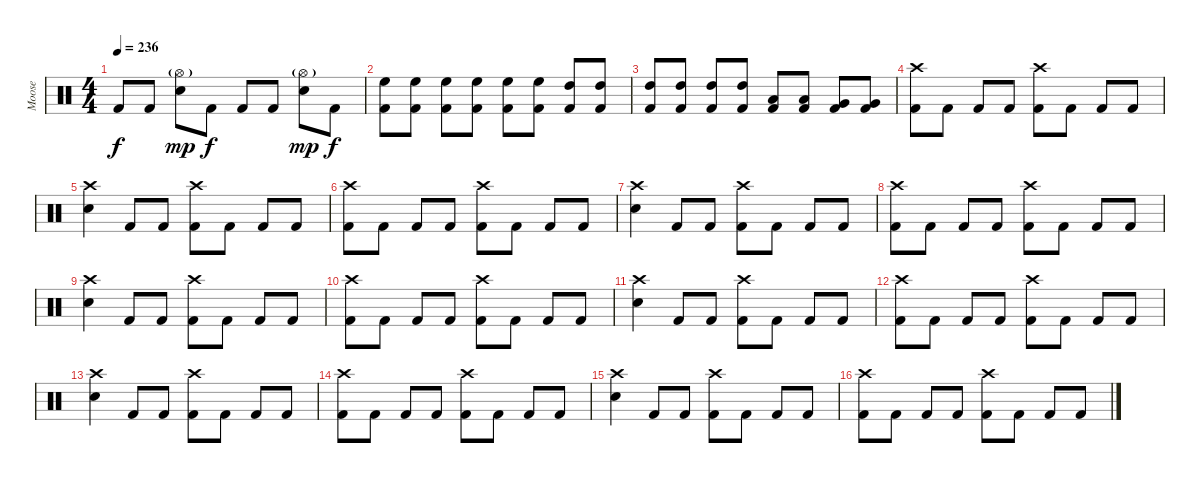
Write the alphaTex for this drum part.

\track ("Moose" "Moose") {instrument percussion}
\staff {score}
\articulation defaults
\ts (4 4)
\tempo 236
\clef neutral
\ks c "Kick (hit) 2".8{dy f} "Kick (hit) 2".8
("Hi-Hat (open)"{g} "Electric Snare (hit)").8{dy mp} "Kick (hit) 2".8{dy f} "Kick (hit) 2".8 "Kick (hit) 2".8 ("Hi-Hat (open)"{g} "Electric Snare (hit)").8{dy mp} "Kick (hit) 2".8{dy f} |
("High Floor Tom (hit)" "Kick (hit) 2").8 ("High Floor Tom (hit)" "Kick (hit) 2").8 ("High Floor Tom (hit)" "Kick (hit) 2").8 ("High Floor Tom (hit)" "Kick (hit) 2").8 ("High Floor Tom (hit)" "Kick (hit) 2").8 ("High Floor Tom (hit)" "Kick (hit) 2").8 ("High Tom (hit)" "Kick (hit) 2").8 ("High Tom (hit)" "Kick (hit) 2").8 |
("High Tom (hit)" "Kick (hit) 2").8 ("High Tom (hit)" "Kick (hit) 2").8 ("High Tom (hit)" "Kick (hit) 2").8 ("High Tom (hit)" "Kick (hit) 2").8 ("Low Tom (hit)" "Kick (hit) 2").8 ("Low Tom (hit)" "Kick (hit) 2").8 ("Very Low Tom (hit)" "Kick (hit) 2").8 ("Very Low Tom (hit)" "Kick (hit) 2").8 |
("Crash high (hit)" "Kick (hit) 2").8 "Kick (hit) 2".8 "Kick (hit) 2".8 "Kick (hit) 2".8 ("Crash high (hit)" "Kick (hit) 2").8 "Kick (hit) 2".8 "Kick (hit) 2".8 "Kick (hit) 2".8 |
("Crash high (hit)" "Electric Snare (hit)").4 "Kick (hit) 2".8 "Kick (hit) 2".8 ("Crash high (hit)" "Kick (hit) 2").8 "Kick (hit) 2".8 "Kick (hit) 2".8 "Kick (hit) 2".8 |
("Crash high (hit)" "Kick (hit) 2").8 "Kick (hit) 2".8 "Kick (hit) 2".8 "Kick (hit) 2".8 ("Crash high (hit)" "Kick (hit) 2").8 "Kick (hit) 2".8 "Kick (hit) 2".8 "Kick (hit) 2".8 |
("Crash high (hit)" "Electric Snare (hit)").4 "Kick (hit) 2".8 "Kick (hit) 2".8 ("Crash high (hit)" "Kick (hit) 2").8 "Kick (hit) 2".8 "Kick (hit) 2".8 "Kick (hit) 2".8 |
("Crash high (hit)" "Kick (hit) 2").8 "Kick (hit) 2".8 "Kick (hit) 2".8 "Kick (hit) 2".8 ("Crash high (hit)" "Kick (hit) 2").8 "Kick (hit) 2".8 "Kick (hit) 2".8 "Kick (hit) 2".8 |
("Crash high (hit)" "Electric Snare (hit)").4 "Kick (hit) 2".8 "Kick (hit) 2".8 ("Crash high (hit)" "Kick (hit) 2").8 "Kick (hit) 2".8 "Kick (hit) 2".8 "Kick (hit) 2".8 |
("Crash high (hit)" "Kick (hit) 2").8 "Kick (hit) 2".8 "Kick (hit) 2".8 "Kick (hit) 2".8 ("Crash high (hit)" "Kick (hit) 2").8 "Kick (hit) 2".8 "Kick (hit) 2".8 "Kick (hit) 2".8 |
("Crash high (hit)" "Electric Snare (hit)").4 "Kick (hit) 2".8 "Kick (hit) 2".8 ("Crash high (hit)" "Kick (hit) 2").8 "Kick (hit) 2".8 "Kick (hit) 2".8 "Kick (hit) 2".8 |
("Crash high (hit)" "Kick (hit) 2").8 "Kick (hit) 2".8 "Kick (hit) 2".8 "Kick (hit) 2".8 ("Crash high (hit)" "Kick (hit) 2").8 "Kick (hit) 2".8 "Kick (hit) 2".8 "Kick (hit) 2".8 |
("Crash high (hit)" "Electric Snare (hit)").4 "Kick (hit) 2".8 "Kick (hit) 2".8 ("Crash high (hit)" "Kick (hit) 2").8 "Kick (hit) 2".8 "Kick (hit) 2".8 "Kick (hit) 2".8 |
("Crash high (hit)" "Kick (hit) 2").8 "Kick (hit) 2".8 "Kick (hit) 2".8 "Kick (hit) 2".8 ("Crash high (hit)" "Kick (hit) 2").8 "Kick (hit) 2".8 "Kick (hit) 2".8 "Kick (hit) 2".8 |
("Crash high (hit)" "Electric Snare (hit)").4 "Kick (hit) 2".8 "Kick (hit) 2".8 ("Crash high (hit)" "Kick (hit) 2").8 "Kick (hit) 2".8 "Kick (hit) 2".8 "Kick (hit) 2".8 |
("Crash high (hit)" "Kick (hit) 2").8 "Kick (hit) 2".8 "Kick (hit) 2".8 "Kick (hit) 2".8 ("Crash high (hit)" "Kick (hit) 2").8 "Kick (hit) 2".8 "Kick (hit) 2".8 "Kick (hit) 2".8
